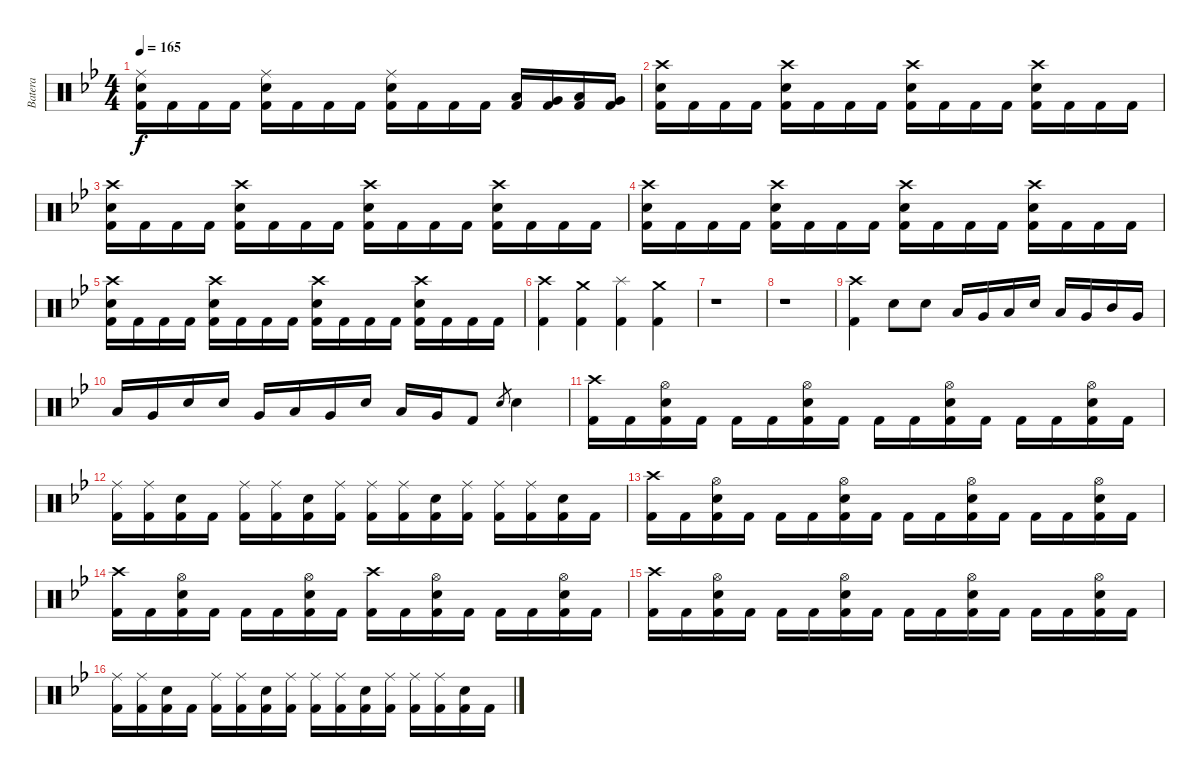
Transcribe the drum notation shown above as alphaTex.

\track ("Batera" "Batera") {instrument percussion}
\staff {score}
\articulation defaults
\ts (4 4)
\tempo 165
\clef neutral
\ks bb
("Ride (middle)" "Electric Snare (hit)" "Kick (hit) 2").16{dy f} "Kick (hit) 2".16 "Kick (hit) 2".16 "Kick (hit) 2".16 ("Ride (middle)" "Electric Snare (hit)" "Kick (hit) 2").16 "Kick (hit) 2".16 "Kick (hit) 2".16 "Kick (hit) 2".16 ("Ride (middle)" "Electric Snare (hit)" "Kick (hit) 2").16 "Kick (hit) 2".16 "Kick (hit) 2".16 "Kick (hit) 2".16 ("Low Floor Tom (hit)" "Kick (hit) 2").16 ("Very Low Tom (hit)" "Kick (hit) 2").16 ("Low Tom (hit)" "Kick (hit) 2").16 ("Very Low Tom (hit)" "Kick (hit) 2").16 |
("Crash high (hit)" "Electric Snare (hit)" "Kick (hit) 2").16 "Kick (hit) 2".16 "Kick (hit) 2".16 "Kick (hit) 2".16 ("Crash high (hit)" "Electric Snare (hit)" "Kick (hit) 2").16 "Kick (hit) 2".16 "Kick (hit) 2".16 "Kick (hit) 2".16 ("Crash high (hit)" "Electric Snare (hit)" "Kick (hit) 2").16 "Kick (hit) 2".16 "Kick (hit) 2".16 "Kick (hit) 2".16 ("Crash high (hit)" "Electric Snare (hit)" "Kick (hit) 2").16 "Kick (hit) 2".16 "Kick (hit) 2".16 "Kick (hit) 2".16 |
("Crash high (hit)" "Electric Snare (hit)" "Kick (hit) 2").16 "Kick (hit) 2".16 "Kick (hit) 2".16 "Kick (hit) 2".16 ("Crash high (hit)" "Electric Snare (hit)" "Kick (hit) 2").16 "Kick (hit) 2".16 "Kick (hit) 2".16 "Kick (hit) 2".16 ("Crash high (hit)" "Electric Snare (hit)" "Kick (hit) 2").16 "Kick (hit) 2".16 "Kick (hit) 2".16 "Kick (hit) 2".16 ("Crash high (hit)" "Electric Snare (hit)" "Kick (hit) 2").16 "Kick (hit) 2".16 "Kick (hit) 2".16 "Kick (hit) 2".16 |
("Crash high (hit)" "Electric Snare (hit)" "Kick (hit) 2").16 "Kick (hit) 2".16 "Kick (hit) 2".16 "Kick (hit) 2".16 ("Crash high (hit)" "Electric Snare (hit)" "Kick (hit) 2").16 "Kick (hit) 2".16 "Kick (hit) 2".16 "Kick (hit) 2".16 ("Crash high (hit)" "Electric Snare (hit)" "Kick (hit) 2").16 "Kick (hit) 2".16 "Kick (hit) 2".16 "Kick (hit) 2".16 ("Crash high (hit)" "Electric Snare (hit)" "Kick (hit) 2").16 "Kick (hit) 2".16 "Kick (hit) 2".16 "Kick (hit) 2".16 |
("Crash high (hit)" "Electric Snare (hit)" "Kick (hit) 2").16 "Kick (hit) 2".16 "Kick (hit) 2".16 "Kick (hit) 2".16 ("Crash high (hit)" "Electric Snare (hit)" "Kick (hit) 2").16 "Kick (hit) 2".16 "Kick (hit) 2".16 "Kick (hit) 2".16 ("Crash high (hit)" "Electric Snare (hit)" "Kick (hit) 2").16 "Kick (hit) 2".16 "Kick (hit) 2".16 "Kick (hit) 2".16 ("Crash high (hit)" "Electric Snare (hit)" "Kick (hit) 2").16 "Kick (hit) 2".16 "Kick (hit) 2".16 "Kick (hit) 2".16 |
("Crash high (hit)" "Kick (hit) 2").4 ("Crash medium (hit)" "Kick (hit) 2").4 ("Splash (hit)" "Kick (hit) 2").4 ("Crash medium (hit)" "Kick (hit) 2").4 |
r.1 |
r.1 |
("Crash high (hit)" "Kick (hit) 2").4 "Electric Snare (hit)".8 "Electric Snare (hit)".8 "Low Floor Tom (hit)".16 "Very Low Tom (hit)".16 "Low Floor Tom (hit)".16 "Electric Snare (hit)".16 "Low Tom (hit)".16 "Very Low Tom (hit)".16 "Mid Tom (hit)".16 "Very Low Tom (hit)".16 |
"Low Floor Tom (hit)".16 "Very Low Tom (hit)".16 "Electric Snare (hit)".16 "Electric Snare (hit)".16 "Very Low Tom (hit)".16 "Low Floor Tom (hit)".16 "Very Low Tom (hit)".16 "Electric Snare (hit)".16 "Low Floor Tom (hit)".16 "Very Low Tom (hit)".16 "Kick (hit) 2".8 "Electric Snare (hit)".8{gr} "Electric Snare (hit)".4 |
("Crash high (hit)" "Kick (hit) 2").16 "Kick (hit) 2".16 ("Hi-Hat (open)" "Electric Snare (hit)" "Kick (hit) 2").16 "Kick (hit) 2".16 "Kick (hit) 2".16 "Kick (hit) 2".16 ("Hi-Hat (open)" "Electric Snare (hit)" "Kick (hit) 2").16 "Kick (hit) 2".16 "Kick (hit) 2".16 "Kick (hit) 2".16 ("Hi-Hat (open)" "Electric Snare (hit)" "Kick (hit) 2").16 "Kick (hit) 2".16 "Kick (hit) 2".16 "Kick (hit) 2".16 ("Hi-Hat (open)" "Electric Snare (hit)" "Kick (hit) 2").16 "Kick (hit) 2".16 |
("Ride (middle)" "Kick (hit) 2").16 ("Ride (middle)" "Kick (hit) 2").16 ("Electric Snare (hit)" "Kick (hit) 2").16 "Kick (hit) 2".16 ("Ride (middle)" "Kick (hit) 2").16 ("Ride (middle)" "Kick (hit) 2").16 ("Electric Snare (hit)" "Kick (hit) 2").16 ("Ride (middle)" "Kick (hit) 2").16 ("Ride (middle)" "Kick (hit) 2").16 ("Ride (middle)" "Kick (hit) 2").16 ("Electric Snare (hit)" "Kick (hit) 2").16 ("Ride (middle)" "Kick (hit) 2").16 ("Ride (middle)" "Kick (hit) 2").16 ("Ride (middle)" "Kick (hit) 2").16 ("Electric Snare (hit)" "Kick (hit) 2").16 "Kick (hit) 2".16 |
("Crash high (hit)" "Kick (hit) 2").16 "Kick (hit) 2".16 ("Hi-Hat (open)" "Electric Snare (hit)" "Kick (hit) 2").16 "Kick (hit) 2".16 "Kick (hit) 2".16 "Kick (hit) 2".16 ("Hi-Hat (open)" "Electric Snare (hit)" "Kick (hit) 2").16 "Kick (hit) 2".16 "Kick (hit) 2".16 "Kick (hit) 2".16 ("Hi-Hat (open)" "Electric Snare (hit)" "Kick (hit) 2").16 "Kick (hit) 2".16 "Kick (hit) 2".16 "Kick (hit) 2".16 ("Hi-Hat (open)" "Electric Snare (hit)" "Kick (hit) 2").16 "Kick (hit) 2".16 |
("Crash high (hit)" "Kick (hit) 2").16 "Kick (hit) 2".16 ("Hi-Hat (open)" "Electric Snare (hit)" "Kick (hit) 2").16 "Kick (hit) 2".16 "Kick (hit) 2".16 "Kick (hit) 2".16 ("Hi-Hat (open)" "Electric Snare (hit)" "Kick (hit) 2").16 "Kick (hit) 2".16 ("Crash high (hit)" "Kick (hit) 2").16 "Kick (hit) 2".16 ("Hi-Hat (open)" "Electric Snare (hit)" "Kick (hit) 2").16 "Kick (hit) 2".16 "Kick (hit) 2".16 "Kick (hit) 2".16 ("Hi-Hat (open)" "Electric Snare (hit)" "Kick (hit) 2").16 "Kick (hit) 2".16 |
("Crash high (hit)" "Kick (hit) 2").16 "Kick (hit) 2".16 ("Hi-Hat (open)" "Electric Snare (hit)" "Kick (hit) 2").16 "Kick (hit) 2".16 "Kick (hit) 2".16 "Kick (hit) 2".16 ("Hi-Hat (open)" "Electric Snare (hit)" "Kick (hit) 2").16 "Kick (hit) 2".16 "Kick (hit) 2".16 "Kick (hit) 2".16 ("Hi-Hat (open)" "Electric Snare (hit)" "Kick (hit) 2").16 "Kick (hit) 2".16 "Kick (hit) 2".16 "Kick (hit) 2".16 ("Hi-Hat (open)" "Electric Snare (hit)" "Kick (hit) 2").16 "Kick (hit) 2".16 |
("Ride (middle)" "Kick (hit) 2").16 ("Ride (middle)" "Kick (hit) 2").16 ("Electric Snare (hit)" "Kick (hit) 2").16 "Kick (hit) 2".16 ("Ride (middle)" "Kick (hit) 2").16 ("Ride (middle)" "Kick (hit) 2").16 ("Electric Snare (hit)" "Kick (hit) 2").16 ("Ride (middle)" "Kick (hit) 2").16 ("Ride (middle)" "Kick (hit) 2").16 ("Ride (middle)" "Kick (hit) 2").16 ("Electric Snare (hit)" "Kick (hit) 2").16 ("Ride (middle)" "Kick (hit) 2").16 ("Ride (middle)" "Kick (hit) 2").16 ("Ride (middle)" "Kick (hit) 2").16 ("Electric Snare (hit)" "Kick (hit) 2").16 "Kick (hit) 2".16
